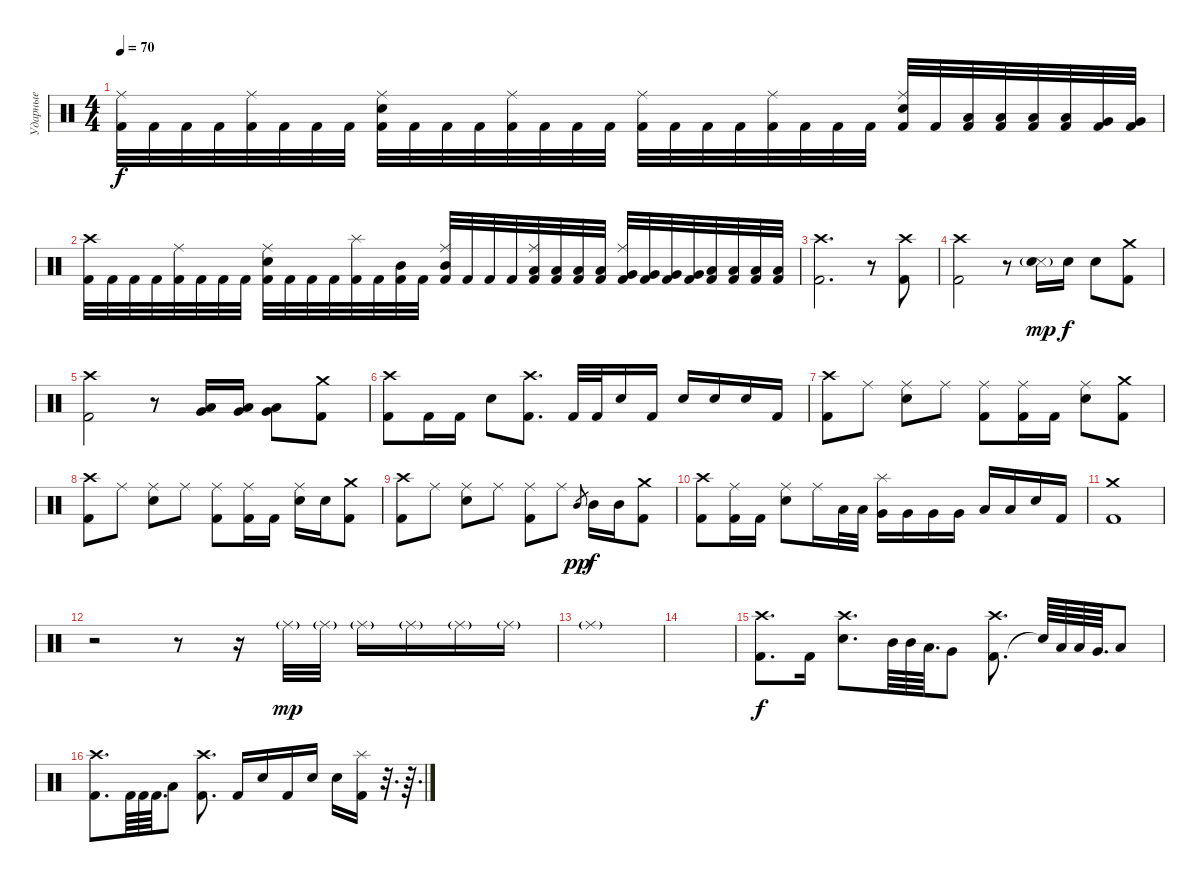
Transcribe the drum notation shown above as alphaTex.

\track ("Ударные" "Ударные") {instrument percussion}
\staff {score}
\articulation defaults
\ts (4 4)
\tempo 70
\clef neutral
\ks c
("Kick (hit) 2" "Ride (middle)").32{dy f} "Kick (hit) 2".32 "Kick (hit) 2".32 "Kick (hit) 2".32 ("Kick (hit) 2" "Ride (middle)").32 "Kick (hit) 2".32 "Kick (hit) 2".32 "Kick (hit) 2".32 ("Kick (hit) 2" "Electric Snare (hit)" "Ride (middle)").32 "Kick (hit) 2".32 "Kick (hit) 2".32 "Kick (hit) 2".32 ("Kick (hit) 2" "Ride (middle)").32 "Kick (hit) 2".32 "Kick (hit) 2".32 "Kick (hit) 2".32 ("Kick (hit) 2" "Ride (middle)").32 "Kick (hit) 2".32 "Kick (hit) 2".32 "Kick (hit) 2".32 ("Kick (hit) 2" "Ride (middle)").32 "Kick (hit) 2".32 "Kick (hit) 2".32 "Kick (hit) 2".32 ("Kick (hit) 2" "Electric Snare (hit)" "Ride (middle)").32 "Kick (hit) 2".32 ("Kick (hit) 2" "Low Tom (hit)").32 ("Kick (hit) 2" "Low Tom (hit)").32 ("Kick (hit) 2" "Low Tom (hit)").32 ("Kick (hit) 2" "Low Tom (hit)").32 ("Kick (hit) 2" "Very Low Tom (hit)").32 ("Kick (hit) 2" "Very Low Tom (hit)").32 |
("Kick (hit) 2" "Crash high (hit)").32 "Kick (hit) 2".32 "Kick (hit) 2".32 "Kick (hit) 2".32 ("Kick (hit) 2" "Ride (middle)").32 "Kick (hit) 2".32 "Kick (hit) 2".32 "Kick (hit) 2".32 ("Kick (hit) 2" "Electric Snare (hit)" "Ride (middle)").32 "Kick (hit) 2".32 "Kick (hit) 2".32 "Kick (hit) 2".32 ("Kick (hit) 2" "Splash (hit)").32 "Kick (hit) 2".32 ("Kick (hit) 2" "Mid Tom (hit)").32 "Kick (hit) 2".32 ("Kick (hit) 2" "Mid Tom (hit)" "Ride (middle)").32 "Kick (hit) 2".32 "Kick (hit) 2".32 "Kick (hit) 2".32 ("Kick (hit) 2" "Low Tom (hit)" "Ride (middle)").32 ("Kick (hit) 2" "Low Tom (hit)").32 ("Kick (hit) 2" "Low Tom (hit)").32 ("Kick (hit) 2" "Low Tom (hit)").32 ("Kick (hit) 2" "Very Low Tom (hit)" "Ride (middle)").32 ("Kick (hit) 2" "Very Low Tom (hit)").32 ("Kick (hit) 2" "Very Low Tom (hit)").32 ("Kick (hit) 2" "Very Low Tom (hit)").32 ("Kick (hit) 2" "Low Floor Tom (hit)").32 ("Kick (hit) 2" "Low Floor Tom (hit)").32 ("Kick (hit) 2" "Low Floor Tom (hit)").32 ("Kick (hit) 2" "Low Floor Tom (hit)").32 |
("Kick (hit) 2" "Crash high (hit)").2{d} r.8 ("Kick (hit) 2" "Crash high (hit)").8 |
("Kick (hit) 2" "Crash high (hit)").2 r.8 ("Snare (side stick) 3" "Electric Snare (hit)"{g}).16{dy mp} "Electric Snare (hit)".16{dy f} "Electric Snare (hit)".8 ("Kick (hit) 2" "Crash medium (hit)").8 |
("Kick (hit) 2" "Crash high (hit)").2 r.8 ("Low Floor Tom (hit)" "Very Low Tom (hit)").16 ("Low Floor Tom (hit)" "Very Low Tom (hit)").16 ("Low Floor Tom (hit)" "Very Low Tom (hit)").8 ("Kick (hit) 2" "Crash medium (hit)").8 |
("Kick (hit) 2" "Crash high (hit)").8 "Kick (hit) 2".16 "Kick (hit) 2".16 "Electric Snare (hit)".8 ("Kick (hit) 2" "Crash high (hit)").8{d} "Kick (hit) 2".32 "Kick (hit) 2".32 "Electric Snare (hit)".16 "Kick (hit) 2".16 "Electric Snare (hit)".16 "Electric Snare (hit)".16 "Electric Snare (hit)".16 "Kick (hit) 2".16 |
("Kick (hit) 2" "Crash high (hit)").8 "Ride (middle)".8 ("Electric Snare (hit)" "Ride (middle)").8 "Ride (middle)".8 ("Kick (hit) 2" "Ride (middle)").8 ("Ride (middle)" "Kick (hit) 2").16 "Kick (hit) 2".16 ("Ride (middle)" "Electric Snare (hit)").8 ("Kick (hit) 2" "Crash medium (hit)").8 |
("Kick (hit) 2" "Crash high (hit)").8 "Ride (middle)".8 ("Electric Snare (hit)" "Ride (middle)").8 "Ride (middle)".8 ("Kick (hit) 2" "Ride (middle)").8 ("Ride (middle)" "Kick (hit) 2").16 "Kick (hit) 2".16 ("Ride (middle)" "Electric Snare (hit)").16 "Electric Snare (hit)".16 ("Kick (hit) 2" "Crash medium (hit)").8 |
("Kick (hit) 2" "Crash high (hit)").8 "Ride (middle)".8 ("Ride (middle)" "Electric Snare (hit)").8 "Ride (middle)".8 ("Ride (middle)" "Kick (hit) 2").8 "Ride (middle)".8 "Mid Tom (hit)".8{gr dy pp} "Mid Tom (hit)".16{dy f} "Mid Tom (hit)".16 ("Kick (hit) 2" "Crash medium (hit)").8 |
("Kick (hit) 2" "Crash high (hit)").8 ("Ride (middle)" "Kick (hit) 2").16 "Kick (hit) 2".16 ("Electric Snare (hit)" "Ride (middle)").8 "Ride (middle)".16 "Low Floor Tom (hit)".32 "Low Floor Tom (hit)".32 ("Very Low Tom (hit)" "Splash (hit)").16 "Very Low Tom (hit)".16 "Very Low Tom (hit)".16 "Very Low Tom (hit)".16 "Low Floor Tom (hit)".16 "Low Floor Tom (hit)".16 "Electric Snare (hit)".16 "Kick (hit) 2".16 |
("Kick (hit) 2" "Crash medium (hit)").1 |
r.2 r.8 r.16 "Ride (middle)"{g}.32{dy mp} "Ride (middle)"{g}.32 "Ride (middle)"{g}.16 "Ride (middle)"{g}.16 "Ride (middle)"{g}.16 "Ride (middle)"{g}.16 |
"Ride (middle)"{g}.1 |
|
("Kick (hit) 2" "Crash high (hit)").8{d dy f} "Kick (hit) 2".16 ("Electric Snare (hit)" "Crash high (hit)").8{d} "Mid Tom (hit)".64 "Mid Tom (hit)".64 "Low Tom (hit)".64{d} "Very Low Tom (hit)".8 ("Kick (hit) 2" "Crash high (hit)").8{d} "Snare (hit)"{t}.64 "Low Tom (hit)".64 "Low Tom (hit)".64 "Very Low Tom (hit)".64{d} "Low Floor Tom (hit)".8 |
("Kick (hit) 2" "Crash high (hit)").8{d} "Kick (hit) 2".64 "Kick (hit) 2".64 "Kick (hit) 2".64{d} "Low Floor Tom (hit)".8 ("Kick (hit) 2" "Crash high (hit)").8{d} "Kick (hit) 2".16 "Electric Snare (hit)".16 "Kick (hit) 2".16 "Electric Snare (hit)".16 "Electric Snare (hit)".16 ("Splash (hit)" "Kick (hit) 2").16 r.32{d} r.64{d}
